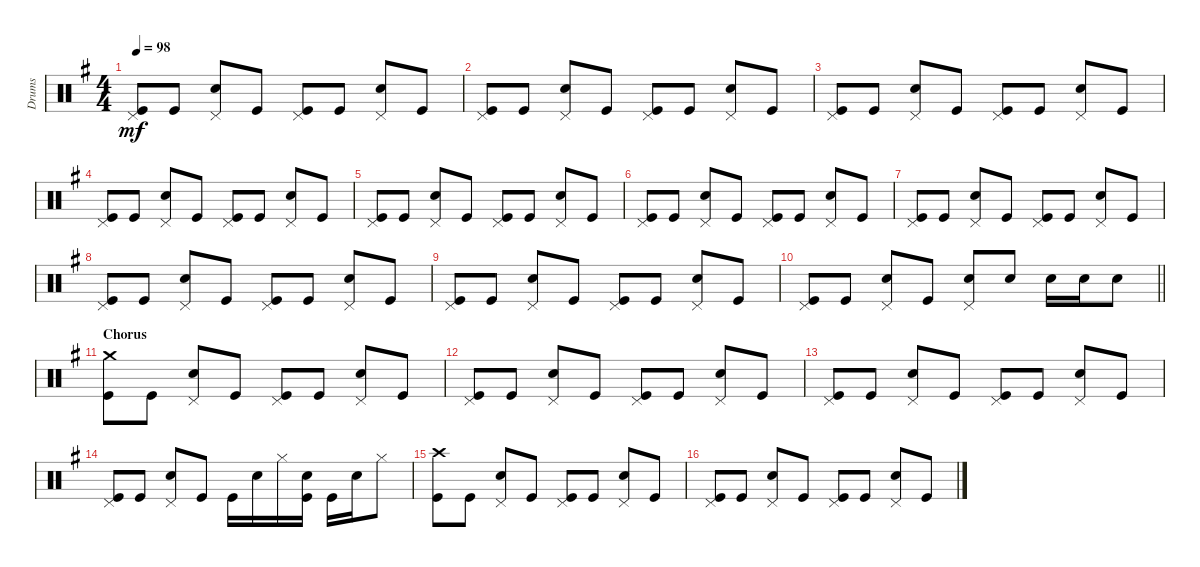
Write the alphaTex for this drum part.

\track ("Drums" "Drums") {instrument percussion}
\staff {score}
\articulation defaults
\ts (4 4)
\tempo 98
\clef neutral
\ks g
("Kick (hit)" "Pedal Hi-Hat (hit)").8{dy mf} "Kick (hit)".8 ("Snare (hit) 2" "Pedal Hi-Hat (hit)").8 "Kick (hit)".8 ("Kick (hit)" "Pedal Hi-Hat (hit)").8 "Kick (hit)".8 ("Snare (hit) 2" "Pedal Hi-Hat (hit)").8 "Kick (hit)".8 |
("Kick (hit)" "Pedal Hi-Hat (hit)").8 "Kick (hit)".8 ("Snare (hit) 2" "Pedal Hi-Hat (hit)").8 "Kick (hit)".8 ("Kick (hit)" "Pedal Hi-Hat (hit)").8 "Kick (hit)".8 ("Snare (hit) 2" "Pedal Hi-Hat (hit)").8 "Kick (hit)".8 |
("Kick (hit)" "Pedal Hi-Hat (hit)").8 "Kick (hit)".8 ("Snare (hit) 2" "Pedal Hi-Hat (hit)").8 "Kick (hit)".8 ("Kick (hit)" "Pedal Hi-Hat (hit)").8 "Kick (hit)".8 ("Snare (hit) 2" "Pedal Hi-Hat (hit)").8 "Kick (hit)".8 |
("Kick (hit)" "Pedal Hi-Hat (hit)").8 "Kick (hit)".8 ("Snare (hit) 2" "Pedal Hi-Hat (hit)").8 "Kick (hit)".8 ("Kick (hit)" "Pedal Hi-Hat (hit)").8 "Kick (hit)".8 ("Snare (hit) 2" "Pedal Hi-Hat (hit)").8 "Kick (hit)".8 |
("Kick (hit)" "Pedal Hi-Hat (hit)").8 "Kick (hit)".8 ("Snare (hit) 2" "Pedal Hi-Hat (hit)").8 "Kick (hit)".8 ("Kick (hit)" "Pedal Hi-Hat (hit)").8 "Kick (hit)".8 ("Snare (hit) 2" "Pedal Hi-Hat (hit)").8 "Kick (hit)".8 |
("Kick (hit)" "Pedal Hi-Hat (hit)").8 "Kick (hit)".8 ("Snare (hit) 2" "Pedal Hi-Hat (hit)").8 "Kick (hit)".8 ("Kick (hit)" "Pedal Hi-Hat (hit)").8 "Kick (hit)".8 ("Snare (hit) 2" "Pedal Hi-Hat (hit)").8 "Kick (hit)".8 |
("Kick (hit)" "Pedal Hi-Hat (hit)").8 "Kick (hit)".8 ("Snare (hit) 2" "Pedal Hi-Hat (hit)").8 "Kick (hit)".8 ("Kick (hit)" "Pedal Hi-Hat (hit)").8 "Kick (hit)".8 ("Snare (hit) 2" "Pedal Hi-Hat (hit)").8 "Kick (hit)".8 |
("Kick (hit)" "Pedal Hi-Hat (hit)").8 "Kick (hit)".8 ("Snare (hit) 2" "Pedal Hi-Hat (hit)").8 "Kick (hit)".8 ("Kick (hit)" "Pedal Hi-Hat (hit)").8 "Kick (hit)".8 ("Snare (hit) 2" "Pedal Hi-Hat (hit)").8 "Kick (hit)".8 |
("Kick (hit)" "Pedal Hi-Hat (hit)").8 "Kick (hit)".8 ("Snare (hit) 2" "Pedal Hi-Hat (hit)").8 "Kick (hit)".8 ("Kick (hit)" "Pedal Hi-Hat (hit)").8 "Kick (hit)".8 ("Snare (hit) 2" "Pedal Hi-Hat (hit)").8 "Kick (hit)".8 |
\barLineRight lightlight
("Kick (hit)" "Pedal Hi-Hat (hit)").8 "Kick (hit)".8 ("Snare (hit) 2" "Pedal Hi-Hat (hit)").8 "Kick (hit)".8 ("Snare (hit) 2" "Pedal Hi-Hat (hit)").8 "Snare (hit) 2".8 "Snare (hit) 2".16 "Snare (hit) 2".16 "Snare (hit) 2".8 |
\section ("" "Chorus")
("Kick (hit)" "Crash medium (hit)").8 "Kick (hit)".8 ("Snare (hit) 2" "Pedal Hi-Hat (hit)").8 "Kick (hit)".8 ("Kick (hit)" "Pedal Hi-Hat (hit)").8 "Kick (hit)".8 ("Snare (hit) 2" "Pedal Hi-Hat (hit)").8 "Kick (hit)".8 |
("Kick (hit)" "Pedal Hi-Hat (hit)").8 "Kick (hit)".8 ("Snare (hit) 2" "Pedal Hi-Hat (hit)").8 "Kick (hit)".8 ("Kick (hit)" "Pedal Hi-Hat (hit)").8 "Kick (hit)".8 ("Snare (hit) 2" "Pedal Hi-Hat (hit)").8 "Kick (hit)".8 |
("Kick (hit)" "Pedal Hi-Hat (hit)").8 "Kick (hit)".8 ("Snare (hit) 2" "Pedal Hi-Hat (hit)").8 "Kick (hit)".8 ("Kick (hit)" "Pedal Hi-Hat (hit)").8 "Kick (hit)".8 ("Snare (hit) 2" "Pedal Hi-Hat (hit)").8 "Kick (hit)".8 |
("Kick (hit)" "Pedal Hi-Hat (hit)").8 "Kick (hit)".8 ("Snare (hit) 2" "Pedal Hi-Hat (hit)").8 "Kick (hit)".8 "Kick (hit)".16 "Snare (hit) 2".16 "Hi-Hat (closed)".16 ("Kick (hit)" "Snare (hit) 2").16 "Kick (hit)".16 "Snare (hit) 2".16 "Hi-Hat (closed)".8 |
("Kick (hit)" "Crash high (hit)").8 "Kick (hit)".8 ("Snare (hit) 2" "Pedal Hi-Hat (hit)").8 "Kick (hit)".8 ("Kick (hit)" "Pedal Hi-Hat (hit)").8 "Kick (hit)".8 ("Snare (hit) 2" "Pedal Hi-Hat (hit)").8 "Kick (hit)".8 |
("Kick (hit)" "Pedal Hi-Hat (hit)").8 "Kick (hit)".8 ("Snare (hit) 2" "Pedal Hi-Hat (hit)").8 "Kick (hit)".8 ("Kick (hit)" "Pedal Hi-Hat (hit)").8 "Kick (hit)".8 ("Snare (hit) 2" "Pedal Hi-Hat (hit)").8 "Kick (hit)".8
